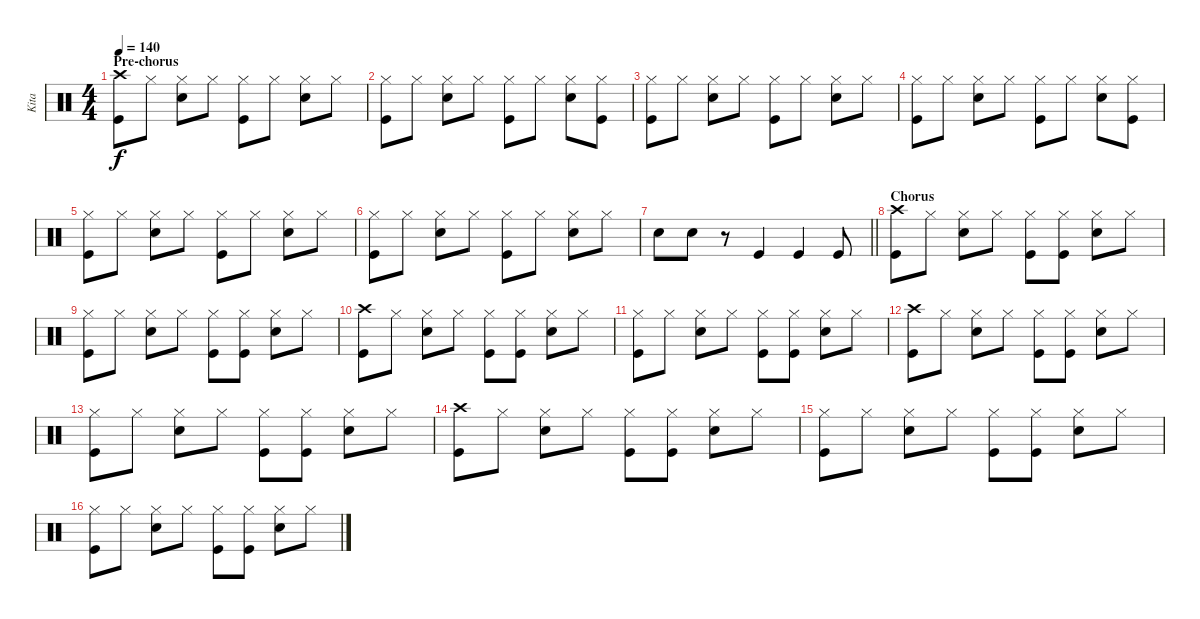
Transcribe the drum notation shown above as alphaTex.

\track ("Kita" "Kita") {instrument percussion}
\staff {score}
\articulation defaults
\ts (4 4)
\section ("" "Pre-chorus")
\tempo 140
\clef neutral
\ks c
("Crash high (hit)" "Kick (hit)").8{dy f} "Hi-Hat (closed)".8 ("Hi-Hat (closed)" "Snare (hit) 2").8 "Hi-Hat (closed)".8 ("Hi-Hat (closed)" "Kick (hit)").8 "Hi-Hat (closed)".8 ("Hi-Hat (closed)" "Snare (hit) 2").8 "Hi-Hat (closed)".8 |
("Hi-Hat (closed)" "Kick (hit)").8 "Hi-Hat (closed)".8 ("Hi-Hat (closed)" "Snare (hit) 2").8 "Hi-Hat (closed)".8 ("Hi-Hat (closed)" "Kick (hit)").8 "Hi-Hat (closed)".8 ("Hi-Hat (closed)" "Snare (hit) 2").8 ("Hi-Hat (closed)" "Kick (hit)").8 |
("Hi-Hat (closed)" "Kick (hit)").8 "Hi-Hat (closed)".8 ("Hi-Hat (closed)" "Snare (hit) 2").8 "Hi-Hat (closed)".8 ("Hi-Hat (closed)" "Kick (hit)").8 "Hi-Hat (closed)".8 ("Hi-Hat (closed)" "Snare (hit) 2").8 "Hi-Hat (closed)".8 |
("Hi-Hat (closed)" "Kick (hit)").8 "Hi-Hat (closed)".8 ("Hi-Hat (closed)" "Snare (hit) 2").8 "Hi-Hat (closed)".8 ("Hi-Hat (closed)" "Kick (hit)").8 "Hi-Hat (closed)".8 ("Hi-Hat (closed)" "Snare (hit) 2").8 ("Hi-Hat (closed)" "Kick (hit)").8 |
("Hi-Hat (closed)" "Kick (hit)").8 "Hi-Hat (closed)".8 ("Hi-Hat (closed)" "Snare (hit) 2").8 "Hi-Hat (closed)".8 ("Hi-Hat (closed)" "Kick (hit)").8 "Hi-Hat (closed)".8 ("Hi-Hat (closed)" "Snare (hit) 2").8 "Hi-Hat (closed)".8 |
("Hi-Hat (closed)" "Kick (hit)").8 "Hi-Hat (closed)".8 ("Hi-Hat (closed)" "Snare (hit) 2").8 "Hi-Hat (closed)".8 ("Hi-Hat (closed)" "Kick (hit)").8 "Hi-Hat (closed)".8 ("Hi-Hat (closed)" "Snare (hit) 2").8 "Hi-Hat (closed)".8 |
\barLineRight lightlight "Snare (hit) 2".8 "Snare (hit) 2".8
r.8 "Kick (hit)".4 "Kick (hit)".4 "Kick (hit)".8 |
\section ("" "Chorus")
("Crash high (hit)" "Kick (hit)").8 "Hi-Hat (closed)".8 ("Hi-Hat (closed)" "Snare (hit) 2").8 "Hi-Hat (closed)".8 ("Hi-Hat (closed)" "Kick (hit)").8 ("Hi-Hat (closed)" "Kick (hit)").8 ("Hi-Hat (closed)" "Snare (hit) 2").8 "Hi-Hat (closed)".8 |
("Hi-Hat (closed)" "Kick (hit)").8 "Hi-Hat (closed)".8 ("Hi-Hat (closed)" "Snare (hit) 2").8 "Hi-Hat (closed)".8 ("Hi-Hat (closed)" "Kick (hit)").8 ("Hi-Hat (closed)" "Kick (hit)").8 ("Hi-Hat (closed)" "Snare (hit) 2").8 "Hi-Hat (closed)".8 |
("Crash high (hit)" "Kick (hit)").8 "Hi-Hat (closed)".8 ("Hi-Hat (closed)" "Snare (hit) 2").8 "Hi-Hat (closed)".8 ("Hi-Hat (closed)" "Kick (hit)").8 ("Hi-Hat (closed)" "Kick (hit)").8 ("Hi-Hat (closed)" "Snare (hit) 2").8 "Hi-Hat (closed)".8 |
("Hi-Hat (closed)" "Kick (hit)").8 "Hi-Hat (closed)".8 ("Hi-Hat (closed)" "Snare (hit) 2").8 "Hi-Hat (closed)".8 ("Hi-Hat (closed)" "Kick (hit)").8 ("Hi-Hat (closed)" "Kick (hit)").8 ("Hi-Hat (closed)" "Snare (hit) 2").8 "Hi-Hat (closed)".8 |
("Crash high (hit)" "Kick (hit)").8 "Hi-Hat (closed)".8 ("Hi-Hat (closed)" "Snare (hit) 2").8 "Hi-Hat (closed)".8 ("Hi-Hat (closed)" "Kick (hit)").8 ("Hi-Hat (closed)" "Kick (hit)").8 ("Hi-Hat (closed)" "Snare (hit) 2").8 "Hi-Hat (closed)".8 |
("Hi-Hat (closed)" "Kick (hit)").8 "Hi-Hat (closed)".8 ("Hi-Hat (closed)" "Snare (hit) 2").8 "Hi-Hat (closed)".8 ("Hi-Hat (closed)" "Kick (hit)").8 ("Hi-Hat (closed)" "Kick (hit)").8 ("Hi-Hat (closed)" "Snare (hit) 2").8 "Hi-Hat (closed)".8 |
("Crash high (hit)" "Kick (hit)").8 "Hi-Hat (closed)".8 ("Hi-Hat (closed)" "Snare (hit) 2").8 "Hi-Hat (closed)".8 ("Hi-Hat (closed)" "Kick (hit)").8 ("Hi-Hat (closed)" "Kick (hit)").8 ("Hi-Hat (closed)" "Snare (hit) 2").8 "Hi-Hat (closed)".8 |
("Hi-Hat (closed)" "Kick (hit)").8 "Hi-Hat (closed)".8 ("Hi-Hat (closed)" "Snare (hit) 2").8 "Hi-Hat (closed)".8 ("Hi-Hat (closed)" "Kick (hit)").8 ("Hi-Hat (closed)" "Kick (hit)").8 ("Hi-Hat (closed)" "Snare (hit) 2").8 "Hi-Hat (closed)".8 |
("Hi-Hat (closed)" "Kick (hit)").8 "Hi-Hat (closed)".8 ("Hi-Hat (closed)" "Snare (hit) 2").8 "Hi-Hat (closed)".8 ("Hi-Hat (closed)" "Kick (hit)").8 ("Hi-Hat (closed)" "Kick (hit)").8 ("Hi-Hat (closed)" "Snare (hit) 2").8 "Hi-Hat (closed)".8
